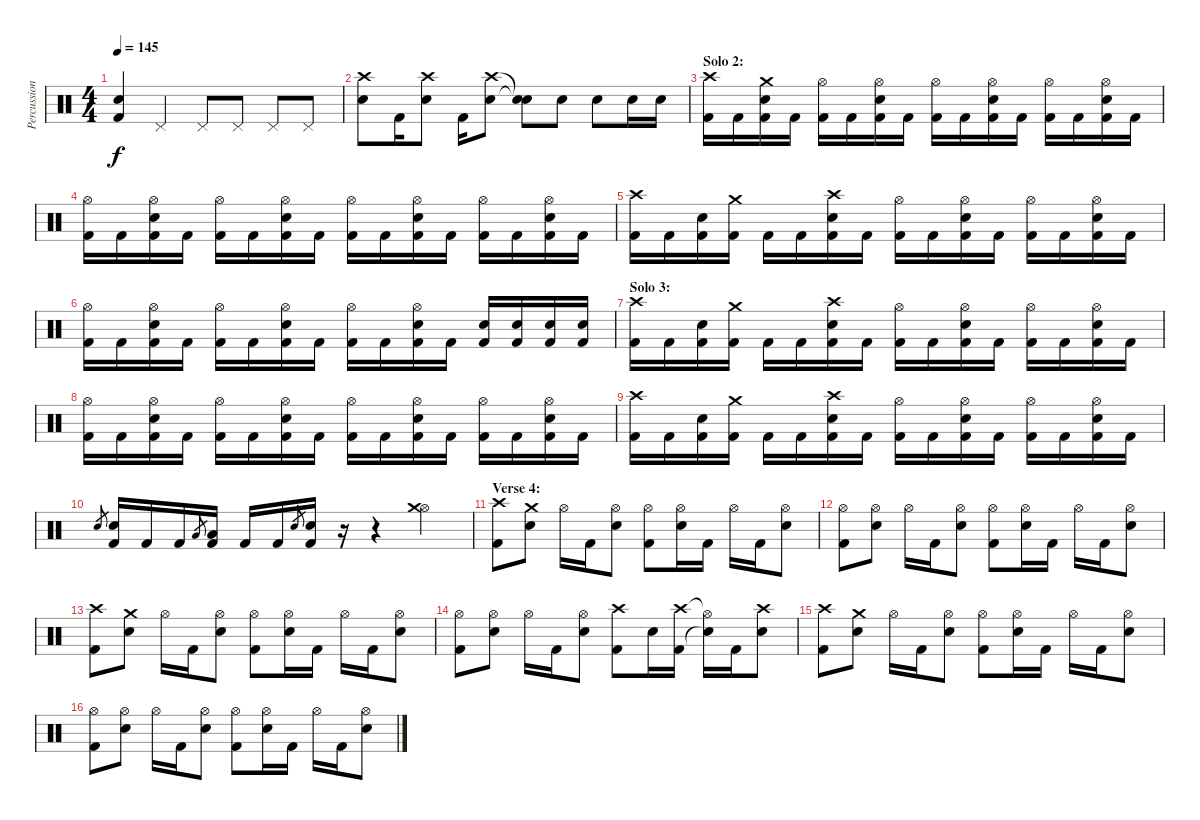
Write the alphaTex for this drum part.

\track ("Percussion" "Percussion") {instrument percussion}
\staff {score}
\articulation defaults
\ts (4 4)
\tempo 145
\clef neutral
\ks c
("Snare (hit) 2" "Kick (hit) 2").4{dy f} "Pedal Hi-Hat (hit)".4 "Pedal Hi-Hat (hit)".8 "Pedal Hi-Hat (hit)".8 "Pedal Hi-Hat (hit)".8 "Pedal Hi-Hat (hit)".8 |
("Crash high (hit)" "Snare (hit) 2").8 "Kick (hit) 2".16 ("Crash high (hit)" "Snare (hit) 2").8 "Kick (hit) 2".16 ("Crash high (hit)" "Snare (hit) 2").8 ("Snare (hit)"{t} "Snare (hit)"{t}).8 "Snare (hit) 2".8 "Snare (hit) 2".8 "Snare (hit) 2".16 "Snare (hit) 2".16 |
\section ("" "Solo 2:")
("Crash high (hit)" "Kick (hit) 2").16 "Kick (hit) 2".16 ("Crash medium (hit)" "Snare (hit) 2" "Kick (hit) 2").16 "Kick (hit) 2".16 ("Hi-Hat (open)" "Kick (hit) 2").16 "Kick (hit) 2".16 ("Hi-Hat (open)" "Snare (hit) 2" "Kick (hit) 2").16 "Kick (hit) 2".16 ("Hi-Hat (open)" "Kick (hit) 2").16 "Kick (hit) 2".16 ("Hi-Hat (open)" "Snare (hit) 2" "Kick (hit) 2").16 "Kick (hit) 2".16 ("Hi-Hat (open)" "Kick (hit) 2").16 "Kick (hit) 2".16 ("Hi-Hat (open)" "Snare (hit) 2" "Kick (hit) 2").16 "Kick (hit) 2".16 |
("Hi-Hat (open)" "Kick (hit) 2").16 "Kick (hit) 2".16 ("Hi-Hat (open)" "Snare (hit) 2" "Kick (hit) 2").16 "Kick (hit) 2".16 ("Hi-Hat (open)" "Kick (hit) 2").16 "Kick (hit) 2".16 ("Hi-Hat (open)" "Snare (hit) 2" "Kick (hit) 2").16 "Kick (hit) 2".16 ("Hi-Hat (open)" "Kick (hit) 2").16 "Kick (hit) 2".16 ("Hi-Hat (open)" "Snare (hit) 2" "Kick (hit) 2").16 "Kick (hit) 2".16 ("Hi-Hat (open)" "Kick (hit) 2").16 "Kick (hit) 2".16 ("Hi-Hat (open)" "Snare (hit) 2" "Kick (hit) 2").16 "Kick (hit) 2".16 |
("Crash high (hit)" "Kick (hit) 2").16 "Kick (hit) 2".16 ("Snare (hit) 2" "Kick (hit) 2").16 ("Crash medium (hit)" "Kick (hit) 2").16 "Kick (hit) 2".16 "Kick (hit) 2".16 ("Crash high (hit)" "Snare (hit) 2" "Kick (hit) 2").16 "Kick (hit) 2".16 ("Hi-Hat (open)" "Kick (hit) 2").16 "Kick (hit) 2".16 ("Hi-Hat (open)" "Snare (hit) 2" "Kick (hit) 2").16 "Kick (hit) 2".16 ("Hi-Hat (open)" "Kick (hit) 2").16 "Kick (hit) 2".16 ("Hi-Hat (open)" "Snare (hit) 2" "Kick (hit) 2").16 "Kick (hit) 2".16 |
("Hi-Hat (open)" "Kick (hit) 2").16 "Kick (hit) 2".16 ("Hi-Hat (open)" "Snare (hit) 2" "Kick (hit) 2").16 "Kick (hit) 2".16 ("Hi-Hat (open)" "Kick (hit) 2").16 "Kick (hit) 2".16 ("Hi-Hat (open)" "Snare (hit) 2" "Kick (hit) 2").16 "Kick (hit) 2".16 ("Hi-Hat (open)" "Kick (hit) 2").16 "Kick (hit) 2".16 ("Hi-Hat (open)" "Snare (hit) 2" "Kick (hit) 2").16 "Kick (hit) 2".16 ("Snare (hit) 2" "Kick (hit) 2").16 ("Snare (hit) 2" "Kick (hit) 2").16 ("Snare (hit) 2" "Kick (hit) 2").16 ("Snare (hit) 2" "Kick (hit) 2").16 |
\section ("" "Solo 3:")
("Crash high (hit)" "Kick (hit) 2").16 "Kick (hit) 2".16 ("Snare (hit) 2" "Kick (hit) 2").16 ("Crash medium (hit)" "Kick (hit) 2").16 "Kick (hit) 2".16 "Kick (hit) 2".16 ("Crash high (hit)" "Snare (hit) 2" "Kick (hit) 2").16 "Kick (hit) 2".16 ("Hi-Hat (open)" "Kick (hit) 2").16 "Kick (hit) 2".16 ("Hi-Hat (open)" "Snare (hit) 2" "Kick (hit) 2").16 "Kick (hit) 2".16 ("Hi-Hat (open)" "Kick (hit) 2").16 "Kick (hit) 2".16 ("Hi-Hat (open)" "Snare (hit) 2" "Kick (hit) 2").16 "Kick (hit) 2".16 |
("Hi-Hat (open)" "Kick (hit) 2").16 "Kick (hit) 2".16 ("Hi-Hat (open)" "Snare (hit) 2" "Kick (hit) 2").16 "Kick (hit) 2".16 ("Hi-Hat (open)" "Kick (hit) 2").16 "Kick (hit) 2".16 ("Hi-Hat (open)" "Snare (hit) 2" "Kick (hit) 2").16 "Kick (hit) 2".16 ("Hi-Hat (open)" "Kick (hit) 2").16 "Kick (hit) 2".16 ("Hi-Hat (open)" "Snare (hit) 2" "Kick (hit) 2").16 "Kick (hit) 2".16 ("Hi-Hat (open)" "Kick (hit) 2").16 "Kick (hit) 2".16 ("Hi-Hat (open)" "Snare (hit) 2" "Kick (hit) 2").16 "Kick (hit) 2".16 |
("Crash high (hit)" "Kick (hit) 2").16 "Kick (hit) 2".16 ("Snare (hit) 2" "Kick (hit) 2").16 ("Crash medium (hit)" "Kick (hit) 2").16 "Kick (hit) 2".16 "Kick (hit) 2".16 ("Crash high (hit)" "Snare (hit) 2" "Kick (hit) 2").16 "Kick (hit) 2".16 ("Hi-Hat (open)" "Kick (hit) 2").16 "Kick (hit) 2".16 ("Hi-Hat (open)" "Snare (hit) 2" "Kick (hit) 2").16 "Kick (hit) 2".16 ("Hi-Hat (open)" "Kick (hit) 2").16 "Kick (hit) 2".16 ("Hi-Hat (open)" "Snare (hit) 2" "Kick (hit) 2").16 "Kick (hit) 2".16 |
"Snare (hit) 2".8{gr} ("Snare (hit) 2" "Kick (hit) 2").16 "Kick (hit) 2".16 "Kick (hit) 2".16 "Low Tom (hit)".8{gr} ("Low Tom (hit)" "Kick (hit) 2").16 "Kick (hit) 2".16 "Kick (hit) 2".16 "Snare (hit) 2".8{gr} ("Snare (hit) 2" "Kick (hit) 2").16 r.16 r.4 ("Hi-Hat (open)" "Crash medium (hit)").4 |
\section ("" "Verse 4:")
("Crash high (hit)" "Kick (hit) 2").8 ("Crash medium (hit)" "Snare (hit) 2").8 "Hi-Hat (open)".16 "Kick (hit) 2".16 ("Hi-Hat (open)" "Snare (hit) 2").8 ("Hi-Hat (open)" "Kick (hit) 2").8 ("Hi-Hat (open)" "Snare (hit) 2").16 "Kick (hit) 2".16 "Hi-Hat (open)".16 "Kick (hit) 2".16 ("Hi-Hat (open)" "Snare (hit) 2").8 |
("Hi-Hat (open)" "Kick (hit) 2").8 ("Hi-Hat (open)" "Snare (hit) 2").8 "Hi-Hat (open)".16 "Kick (hit) 2".16 ("Hi-Hat (open)" "Snare (hit) 2").8 ("Hi-Hat (open)" "Kick (hit) 2").8 ("Hi-Hat (open)" "Snare (hit) 2").16 "Kick (hit) 2".16 "Hi-Hat (open)".16 "Kick (hit) 2".16 ("Hi-Hat (open)" "Snare (hit) 2").8 |
("Crash high (hit)" "Kick (hit) 2").8 ("Crash medium (hit)" "Snare (hit) 2").8 "Hi-Hat (open)".16 "Kick (hit) 2".16 ("Hi-Hat (open)" "Snare (hit) 2").8 ("Hi-Hat (open)" "Kick (hit) 2").8 ("Hi-Hat (open)" "Snare (hit) 2").16 "Kick (hit) 2".16 "Hi-Hat (open)".16 "Kick (hit) 2".16 ("Hi-Hat (open)" "Snare (hit) 2").8 |
("Hi-Hat (open)" "Kick (hit) 2").8 ("Hi-Hat (open)" "Snare (hit) 2").8 "Hi-Hat (open)".16 "Kick (hit) 2".16 ("Hi-Hat (open)" "Snare (hit) 2").8 ("Crash high (hit)" "Kick (hit) 2").8 "Snare (hit) 2".16 ("Crash high (hit)" "Kick (hit) 2").16 ("Hi-Hat (open)"{t} "Snare (hit)"{t}).16 "Kick (hit) 2".16 ("Crash high (hit)" "Snare (hit) 2").8 |
("Crash high (hit)" "Kick (hit) 2").8 ("Crash medium (hit)" "Snare (hit) 2").8 "Hi-Hat (open)".16 "Kick (hit) 2".16 ("Hi-Hat (open)" "Snare (hit) 2").8 ("Hi-Hat (open)" "Kick (hit) 2").8 ("Hi-Hat (open)" "Snare (hit) 2").16 "Kick (hit) 2".16 "Hi-Hat (open)".16 "Kick (hit) 2".16 ("Hi-Hat (open)" "Snare (hit) 2").8 |
("Hi-Hat (open)" "Kick (hit) 2").8 ("Hi-Hat (open)" "Snare (hit) 2").8 "Hi-Hat (open)".16 "Kick (hit) 2".16 ("Hi-Hat (open)" "Snare (hit) 2").8 ("Hi-Hat (open)" "Kick (hit) 2").8 ("Hi-Hat (open)" "Snare (hit) 2").16 "Kick (hit) 2".16 "Hi-Hat (open)".16 "Kick (hit) 2".16 ("Hi-Hat (open)" "Snare (hit) 2").8
